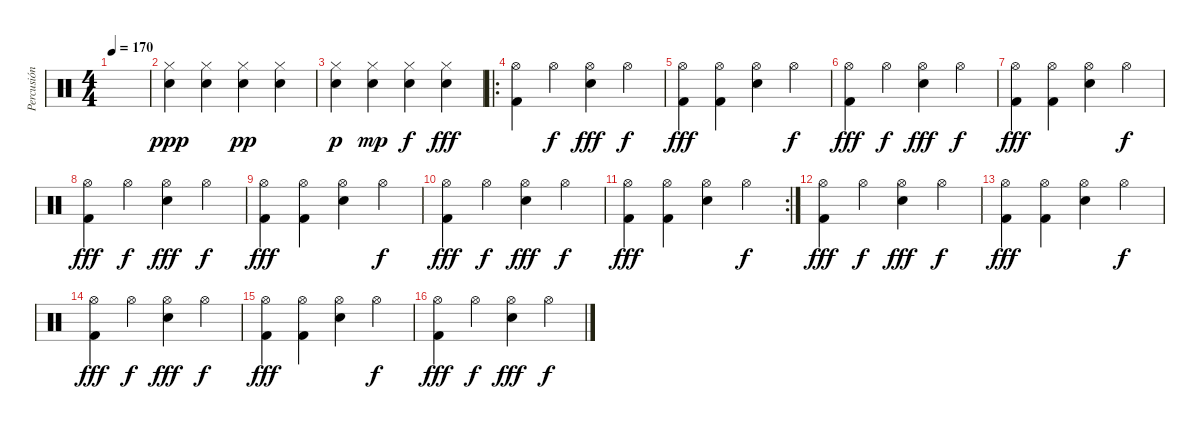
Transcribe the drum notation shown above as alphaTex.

\track ("Percusión" "Percusión") {instrument percussion}
\staff {score}
\articulation defaults
\ts (4 4)
\tempo 170
\clef neutral
\ks c
|
("Hi-Hat (closed)" "Electric Snare (hit)").4{dy ppp} ("Hi-Hat (closed)" "Electric Snare (hit)").4 ("Hi-Hat (closed)" "Electric Snare (hit)").4{dy pp} ("Hi-Hat (closed)" "Electric Snare (hit)").4 |
("Hi-Hat (closed)" "Electric Snare (hit)").4{dy p} ("Hi-Hat (closed)" "Electric Snare (hit)").4{dy mp} ("Hi-Hat (closed)" "Electric Snare (hit)").4{dy f} ("Hi-Hat (closed)" "Electric Snare (hit)").4{dy fff} |
\ro
("Hi-Hat (open)" "Kick (hit) 2").4 "Hi-Hat (open)".4{dy f} ("Hi-Hat (open)" "Electric Snare (hit)").4{dy fff} "Hi-Hat (open)".4{dy f} |
("Hi-Hat (open)" "Kick (hit) 2").4{dy fff} ("Hi-Hat (open)" "Kick (hit) 2").4 ("Hi-Hat (open)" "Electric Snare (hit)").4 "Hi-Hat (open)".4{dy f} |
("Hi-Hat (open)" "Kick (hit) 2").4{dy fff} "Hi-Hat (open)".4{dy f} ("Hi-Hat (open)" "Electric Snare (hit)").4{dy fff} "Hi-Hat (open)".4{dy f} |
("Hi-Hat (open)" "Kick (hit) 2").4{dy fff} ("Hi-Hat (open)" "Kick (hit) 2").4 ("Hi-Hat (open)" "Electric Snare (hit)").4 "Hi-Hat (open)".4{dy f} |
("Hi-Hat (open)" "Kick (hit) 2").4{dy fff} "Hi-Hat (open)".4{dy f} ("Hi-Hat (open)" "Electric Snare (hit)").4{dy fff} "Hi-Hat (open)".4{dy f} |
("Hi-Hat (open)" "Kick (hit) 2").4{dy fff} ("Hi-Hat (open)" "Kick (hit) 2").4 ("Hi-Hat (open)" "Electric Snare (hit)").4 "Hi-Hat (open)".4{dy f} |
("Hi-Hat (open)" "Kick (hit) 2").4{dy fff} "Hi-Hat (open)".4{dy f} ("Hi-Hat (open)" "Electric Snare (hit)").4{dy fff} "Hi-Hat (open)".4{dy f} |
\rc 2
("Hi-Hat (open)" "Kick (hit) 2").4{dy fff} ("Hi-Hat (open)" "Kick (hit) 2").4 ("Hi-Hat (open)" "Electric Snare (hit)").4 "Hi-Hat (open)".4{dy f} |
("Hi-Hat (open)" "Kick (hit) 2").4{dy fff} "Hi-Hat (open)".4{dy f} ("Hi-Hat (open)" "Electric Snare (hit)").4{dy fff} "Hi-Hat (open)".4{dy f} |
("Hi-Hat (open)" "Kick (hit) 2").4{dy fff} ("Hi-Hat (open)" "Kick (hit) 2").4 ("Hi-Hat (open)" "Electric Snare (hit)").4 "Hi-Hat (open)".4{dy f} |
("Hi-Hat (open)" "Kick (hit) 2").4{dy fff} "Hi-Hat (open)".4{dy f} ("Hi-Hat (open)" "Electric Snare (hit)").4{dy fff} "Hi-Hat (open)".4{dy f} |
("Hi-Hat (open)" "Kick (hit) 2").4{dy fff} ("Hi-Hat (open)" "Kick (hit) 2").4 ("Hi-Hat (open)" "Electric Snare (hit)").4 "Hi-Hat (open)".4{dy f} |
("Hi-Hat (open)" "Kick (hit) 2").4{dy fff} "Hi-Hat (open)".4{dy f} ("Hi-Hat (open)" "Electric Snare (hit)").4{dy fff} "Hi-Hat (open)".4{dy f}
